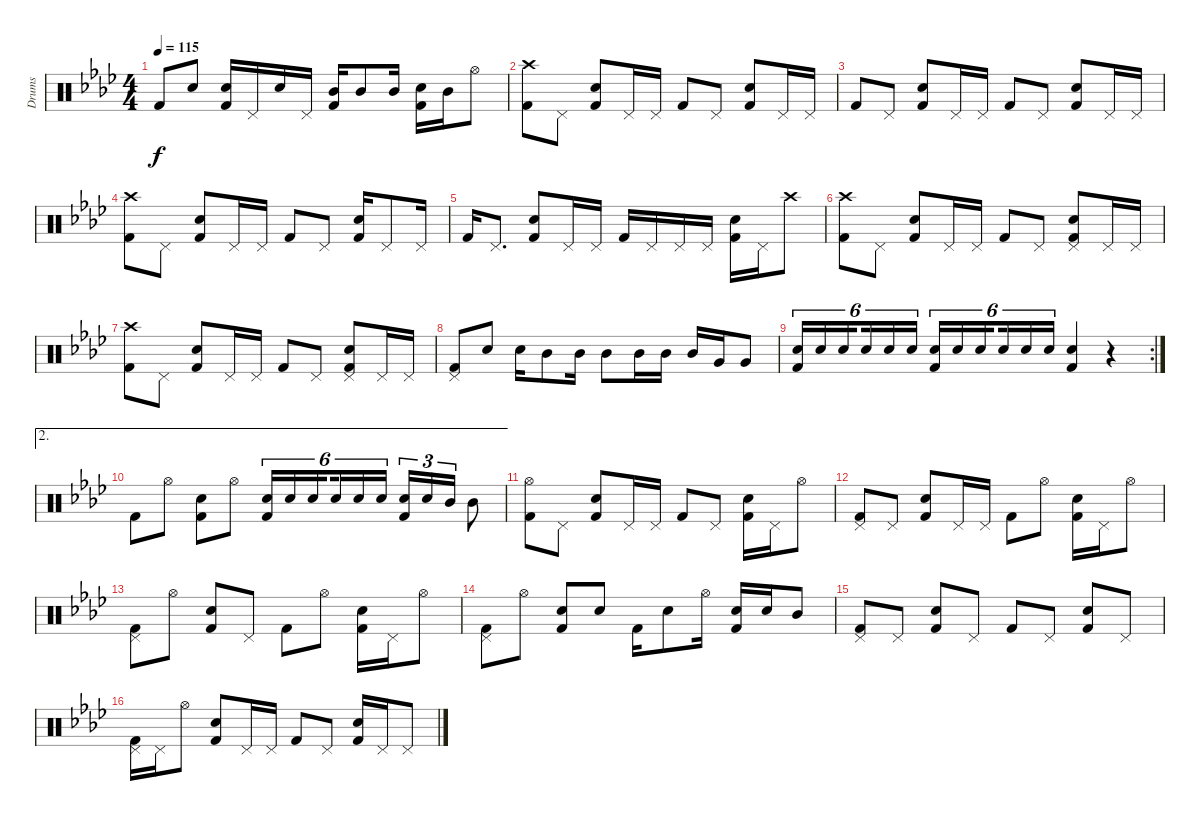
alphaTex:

\track ("Drums" "Drums") {instrument percussion}
\staff {score}
\articulation defaults
\ts (4 4)
\tempo 115
\clef neutral
\ks ab "Kick (hit) 2".8{dy f} "Electric Snare (hit)".8
("Electric Snare (hit)" "Kick (hit) 2").16 "Pedal Hi-Hat (hit)".16 "Electric Snare (hit)".16 "Pedal Hi-Hat (hit)".16 ("Mid Tom (hit)" "Kick (hit) 2").16 "Mid Tom (hit)".8 "Mid Tom (hit)".16 ("Electric Snare (hit)" "Kick (hit) 2").16 "Mid Tom (hit)".16 "Hi-Hat (open)".8 |
("Crash high (hit)" "Kick (hit) 2").8 "Pedal Hi-Hat (hit)".8 ("Electric Snare (hit)" "Kick (hit) 2").8 "Pedal Hi-Hat (hit)".16 "Pedal Hi-Hat (hit)".16 "Kick (hit) 2".8 "Pedal Hi-Hat (hit)".8 ("Electric Snare (hit)" "Kick (hit) 2").8 "Pedal Hi-Hat (hit)".16 "Pedal Hi-Hat (hit)".16 |
"Kick (hit) 2".8 "Pedal Hi-Hat (hit)".8 ("Electric Snare (hit)" "Kick (hit) 2").8 "Pedal Hi-Hat (hit)".16 "Pedal Hi-Hat (hit)".16 "Kick (hit) 2".8 "Pedal Hi-Hat (hit)".8 ("Electric Snare (hit)" "Kick (hit) 2").8 "Pedal Hi-Hat (hit)".16 "Pedal Hi-Hat (hit)".16 |
("Crash high (hit)" "Kick (hit) 2").8 "Pedal Hi-Hat (hit)".8 ("Electric Snare (hit)" "Kick (hit) 2").8 "Pedal Hi-Hat (hit)".16 "Pedal Hi-Hat (hit)".16 "Kick (hit) 2".8 "Pedal Hi-Hat (hit)".8 ("Electric Snare (hit)" "Kick (hit) 2").16 "Pedal Hi-Hat (hit)".8 "Pedal Hi-Hat (hit)".16 |
"Kick (hit) 2".16 "Pedal Hi-Hat (hit)".8{d} ("Electric Snare (hit)" "Kick (hit) 2").8 "Pedal Hi-Hat (hit)".16 "Pedal Hi-Hat (hit)".16 "Kick (hit) 2".16 "Pedal Hi-Hat (hit)".16 "Pedal Hi-Hat (hit)".16 "Pedal Hi-Hat (hit)".16 ("Electric Snare (hit)" "Kick (hit) 2").16 "Pedal Hi-Hat (hit)".16 "Crash high (hit)".8 |
("Crash high (hit)" "Kick (hit) 2").8 "Pedal Hi-Hat (hit)".8 ("Electric Snare (hit)" "Kick (hit) 2").8 "Pedal Hi-Hat (hit)".16 "Pedal Hi-Hat (hit)".16 "Kick (hit) 2".8 "Pedal Hi-Hat (hit)".8 ("Pedal Hi-Hat (hit)" "Electric Snare (hit)" "Kick (hit) 2").8 "Pedal Hi-Hat (hit)".16 "Pedal Hi-Hat (hit)".16 |
("Crash high (hit)" "Kick (hit) 2").8 "Pedal Hi-Hat (hit)".8 ("Electric Snare (hit)" "Kick (hit) 2").8 "Pedal Hi-Hat (hit)".16 "Pedal Hi-Hat (hit)".16 "Kick (hit) 2".8 "Pedal Hi-Hat (hit)".8 ("Pedal Hi-Hat (hit)" "Electric Snare (hit)" "Kick (hit) 2").8 "Pedal Hi-Hat (hit)".16 "Pedal Hi-Hat (hit)".16 |
("Pedal Hi-Hat (hit)" "Kick (hit) 2").8 "Electric Snare (hit)".8 "Electric Snare (hit)".16 "Mid Tom (hit)".8 "Mid Tom (hit)".16 "Mid Tom (hit)".8 "Mid Tom (hit)".16 "Mid Tom (hit)".16 "Mid Tom (hit)".16 "Very Low Tom (hit)".16 "Very Low Tom (hit)".8 |
\rc 2
("Electric Snare (hit)" "Kick (hit) 2").16{tu (6 4)} "Electric Snare (hit)".16{tu (6 4)} "Electric Snare (hit)".16{tu (6 4) beam splitsecondary} "Electric Snare (hit)".16{tu (6 4)} "Electric Snare (hit)".16{tu (6 4)} "Electric Snare (hit)".16{tu (6 4)} ("Electric Snare (hit)" "Kick (hit) 2").16{tu (6 4)} "Electric Snare (hit)".16{tu (6 4)} "Electric Snare (hit)".16{tu (6 4) beam splitsecondary} "Electric Snare (hit)".16{tu (6 4)} "Electric Snare (hit)".16{tu (6 4)} "Electric Snare (hit)".16{tu (6 4)} ("Electric Snare (hit)" "Kick (hit) 2").4 r.4 |
\ae 2 "Kick (hit) 2".8 "Hi-Hat (open)".8
("Electric Snare (hit)" "Kick (hit) 2").8 "Hi-Hat (open)".8 ("Electric Snare (hit)" "Kick (hit) 2").16{tu (6 4)} "Electric Snare (hit)".16{tu (6 4)} "Electric Snare (hit)".16{tu (6 4) beam splitsecondary} "Electric Snare (hit)".16{tu (6 4)} "Electric Snare (hit)".16{tu (6 4)} "Electric Snare (hit)".16{tu (6 4)} ("Electric Snare (hit)" "Kick (hit) 2").16{tu (3 2)} "Electric Snare (hit)".16{tu (3 2)} "Mid Tom (hit)".16{tu (3 2)} "Mid Tom (hit)".8 |
("Hi-Hat (open)" "Kick (hit) 2").8 "Pedal Hi-Hat (hit)".8 ("Electric Snare (hit)" "Kick (hit) 2").8 "Pedal Hi-Hat (hit)".16 "Pedal Hi-Hat (hit)".16 "Kick (hit) 2".8 "Pedal Hi-Hat (hit)".8 ("Electric Snare (hit)" "Kick (hit) 2").16 "Pedal Hi-Hat (hit)".16 "Hi-Hat (open)".8 |
("Pedal Hi-Hat (hit)" "Kick (hit) 2").8 "Pedal Hi-Hat (hit)".8 ("Electric Snare (hit)" "Kick (hit) 2").8 "Pedal Hi-Hat (hit)".16 "Pedal Hi-Hat (hit)".16 "Kick (hit) 2".8 "Hi-Hat (open)".8 ("Electric Snare (hit)" "Kick (hit) 2").16 "Pedal Hi-Hat (hit)".16 "Hi-Hat (open)".8 |
("Pedal Hi-Hat (hit)" "Kick (hit) 2").8 "Hi-Hat (open)".8 ("Electric Snare (hit)" "Kick (hit) 2").8 "Pedal Hi-Hat (hit)".8 "Kick (hit) 2".8 "Hi-Hat (open)".8 ("Electric Snare (hit)" "Kick (hit) 2").16 "Pedal Hi-Hat (hit)".16 "Hi-Hat (open)".8 |
("Pedal Hi-Hat (hit)" "Kick (hit) 2").8 "Hi-Hat (open)".8 ("Electric Snare (hit)" "Kick (hit) 2").8 "Electric Snare (hit)".8 "Kick (hit) 2".16 "Electric Snare (hit)".8 "Hi-Hat (open)".16 ("Electric Snare (hit)" "Kick (hit) 2").16 "Electric Snare (hit)".16 "Mid Tom (hit)".8 |
("Pedal Hi-Hat (hit)" "Kick (hit) 2").8 "Pedal Hi-Hat (hit)".8 ("Electric Snare (hit)" "Kick (hit) 2").8 "Pedal Hi-Hat (hit)".8 "Kick (hit) 2".8 "Pedal Hi-Hat (hit)".8 ("Electric Snare (hit)" "Kick (hit) 2").8 "Pedal Hi-Hat (hit)".8 |
("Pedal Hi-Hat (hit)" "Kick (hit) 2").16 "Pedal Hi-Hat (hit)".16 "Hi-Hat (open)".8 ("Electric Snare (hit)" "Kick (hit) 2").8 "Pedal Hi-Hat (hit)".16 "Pedal Hi-Hat (hit)".16 "Kick (hit) 2".8 "Pedal Hi-Hat (hit)".8 ("Electric Snare (hit)" "Kick (hit) 2").16 "Pedal Hi-Hat (hit)".16 "Pedal Hi-Hat (hit)".8
